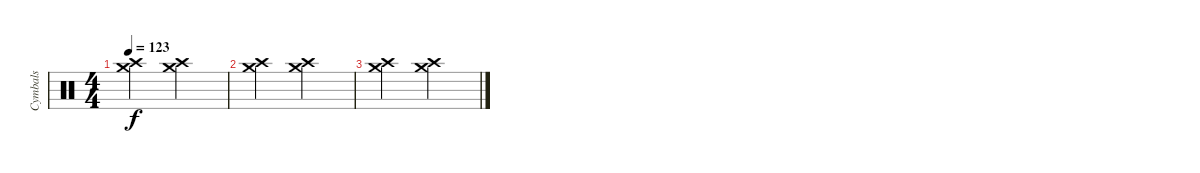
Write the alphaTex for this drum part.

\track ("Cymbals" "Cymbals") {instrument percussion}
\staff {score}
\articulation defaults
\ts (4 4)
\tempo 123
\clef neutral
\ks c
("Crash medium (hit)" "Crash high (hit)").2{dy f} ("Crash medium (hit)" "Crash high (hit)").2 |
("Crash medium (hit)" "Crash high (hit)").2 ("Crash medium (hit)" "Crash high (hit)").2 |
("Crash medium (hit)" "Crash high (hit)").2 ("Crash medium (hit)" "Crash high (hit)").2
